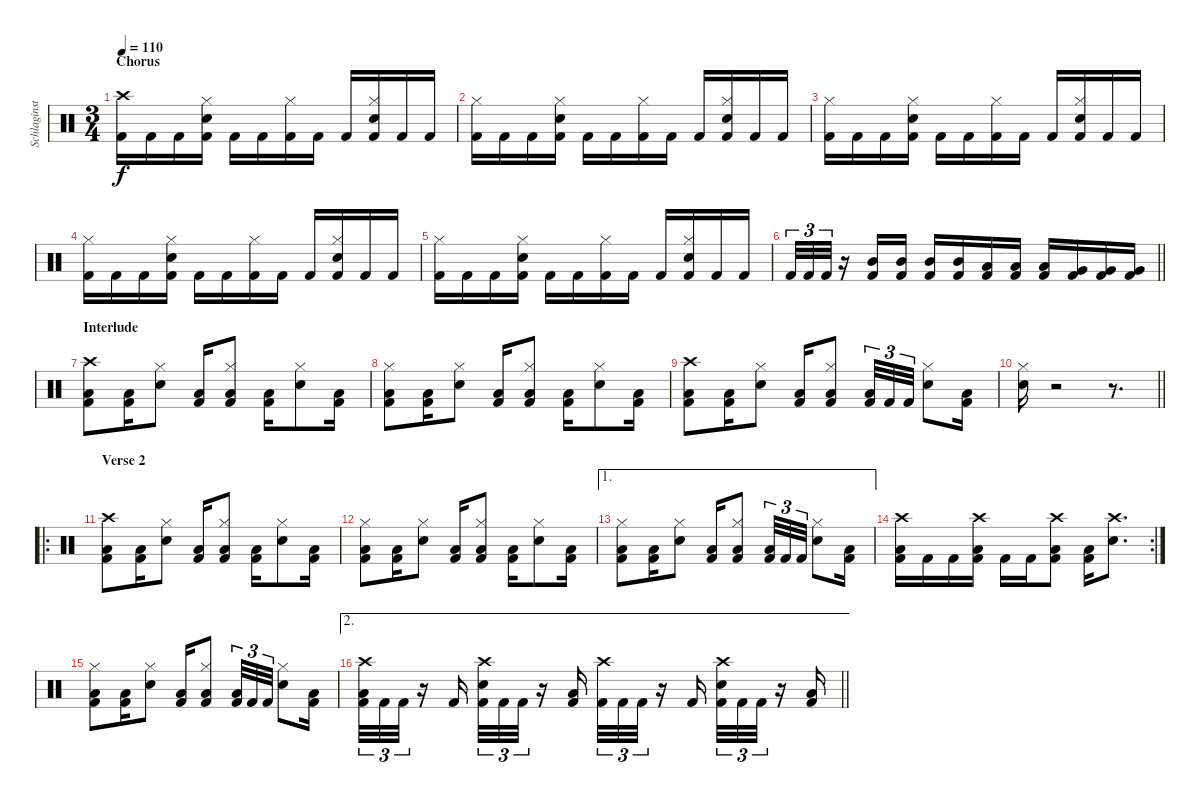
\track ("Schlaginstrumente - Auswahl" "Schlaginst") {instrument percussion}
\staff {score}
\articulation defaults
\ts (3 4)
\section ("" "Chorus")
\tempo 110
\clef neutral
\ks c
("Crash high (hit)" "Kick (hit) 2").16{dy f} "Kick (hit) 2".16 "Kick (hit) 2".16 ("Hi-Hat (closed)" "Snare (hit) 2" "Kick (hit) 2").16 "Kick (hit) 2".16 "Kick (hit) 2".16 ("Hi-Hat (closed)" "Kick (hit) 2").16 "Kick (hit) 2".16 "Kick (hit) 2".16 ("Hi-Hat (closed)" "Snare (hit) 2" "Kick (hit) 2").16 "Kick (hit) 2".16 "Kick (hit) 2".16 |
("Hi-Hat (closed)" "Kick (hit) 2").16 "Kick (hit) 2".16 "Kick (hit) 2".16 ("Hi-Hat (closed)" "Snare (hit) 2" "Kick (hit) 2").16 "Kick (hit) 2".16 "Kick (hit) 2".16 ("Hi-Hat (closed)" "Kick (hit) 2").16 "Kick (hit) 2".16 "Kick (hit) 2".16 ("Hi-Hat (closed)" "Snare (hit) 2" "Kick (hit) 2").16 "Kick (hit) 2".16 "Kick (hit) 2".16 |
("Hi-Hat (closed)" "Kick (hit) 2").16 "Kick (hit) 2".16 "Kick (hit) 2".16 ("Hi-Hat (closed)" "Snare (hit) 2" "Kick (hit) 2").16 "Kick (hit) 2".16 "Kick (hit) 2".16 ("Hi-Hat (closed)" "Kick (hit) 2").16 "Kick (hit) 2".16 "Kick (hit) 2".16 ("Hi-Hat (closed)" "Snare (hit) 2" "Kick (hit) 2").16 "Kick (hit) 2".16 "Kick (hit) 2".16 |
("Hi-Hat (closed)" "Kick (hit) 2").16 "Kick (hit) 2".16 "Kick (hit) 2".16 ("Hi-Hat (closed)" "Snare (hit) 2" "Kick (hit) 2").16 "Kick (hit) 2".16 "Kick (hit) 2".16 ("Hi-Hat (closed)" "Kick (hit) 2").16 "Kick (hit) 2".16 "Kick (hit) 2".16 ("Hi-Hat (closed)" "Snare (hit) 2" "Kick (hit) 2").16 "Kick (hit) 2".16 "Kick (hit) 2".16 |
("Hi-Hat (closed)" "Kick (hit) 2").16 "Kick (hit) 2".16 "Kick (hit) 2".16 ("Hi-Hat (closed)" "Snare (hit) 2" "Kick (hit) 2").16 "Kick (hit) 2".16 "Kick (hit) 2".16 ("Hi-Hat (closed)" "Kick (hit) 2").16 "Kick (hit) 2".16 "Kick (hit) 2".16 ("Hi-Hat (closed)" "Snare (hit) 2" "Kick (hit) 2").16 "Kick (hit) 2".16 "Kick (hit) 2".16 |
\barLineRight lightlight "Kick (hit) 2".32{tu (3 2)} "Kick (hit) 2".32{tu (3 2)} "Kick (hit) 2".32{tu (3 2)}
r.16 ("Mid Tom (hit)" "Kick (hit) 2").16 ("Mid Tom (hit)" "Kick (hit) 2").16 ("Mid Tom (hit)" "Kick (hit) 2").16 ("Mid Tom (hit)" "Kick (hit) 2").16 ("Low Tom (hit)" "Kick (hit) 2").16 ("Low Tom (hit)" "Kick (hit) 2").16 ("Low Tom (hit)" "Kick (hit) 2").16 ("Very Low Tom (hit)" "Kick (hit) 2").16 ("Very Low Tom (hit)" "Kick (hit) 2").16 ("Very Low Tom (hit)" "Kick (hit) 2").16 |
\section ("" "Interlude")
("Crash high (hit)" "Low Tom (hit)" "Kick (hit) 2").8 ("Low Tom (hit)" "Kick (hit) 2").16 ("Hi-Hat (closed)" "Snare (hit) 2").8 ("Low Tom (hit)" "Kick (hit) 2").16 ("Hi-Hat (closed)" "Low Tom (hit)" "Kick (hit) 2").8 ("Low Tom (hit)" "Kick (hit) 2").16 ("Hi-Hat (closed)" "Snare (hit) 2").8 ("Low Tom (hit)" "Kick (hit) 2").16 |
("Hi-Hat (closed)" "Low Tom (hit)" "Kick (hit) 2").8 ("Low Tom (hit)" "Kick (hit) 2").16 ("Hi-Hat (closed)" "Snare (hit) 2").8 ("Low Tom (hit)" "Kick (hit) 2").16 ("Hi-Hat (closed)" "Low Tom (hit)" "Kick (hit) 2").8 ("Low Tom (hit)" "Kick (hit) 2").16 ("Hi-Hat (closed)" "Snare (hit) 2").8 ("Low Tom (hit)" "Kick (hit) 2").16 |
("Crash high (hit)" "Low Tom (hit)" "Kick (hit) 2").8 ("Low Tom (hit)" "Kick (hit) 2").16 ("Hi-Hat (closed)" "Snare (hit) 2").8 ("Low Tom (hit)" "Kick (hit) 2").16 ("Hi-Hat (closed)" "Low Tom (hit)" "Kick (hit) 2").8 ("Low Tom (hit)" "Kick (hit) 2").32{tu (3 2)} "Kick (hit) 2".32{tu (3 2)} "Kick (hit) 2".32{tu (3 2)} ("Hi-Hat (closed)" "Snare (hit) 2").8 ("Low Tom (hit)" "Kick (hit) 2").16 |
\barLineRight lightlight
("Hi-Hat (closed)" "Snare (hit) 2").16 r.2 r.8{d} |
\ro
\section ("" "Verse 2")
("Crash high (hit)" "Low Tom (hit)" "Kick (hit) 2").8 ("Low Tom (hit)" "Kick (hit) 2").16 ("Hi-Hat (closed)" "Snare (hit) 2").8 ("Low Tom (hit)" "Kick (hit) 2").16 ("Hi-Hat (closed)" "Low Tom (hit)" "Kick (hit) 2").8 ("Low Tom (hit)" "Kick (hit) 2").16 ("Hi-Hat (closed)" "Snare (hit) 2").8 ("Low Tom (hit)" "Kick (hit) 2").16 |
("Hi-Hat (closed)" "Low Tom (hit)" "Kick (hit) 2").8 ("Low Tom (hit)" "Kick (hit) 2").16 ("Hi-Hat (closed)" "Snare (hit) 2").8 ("Low Tom (hit)" "Kick (hit) 2").16 ("Hi-Hat (closed)" "Low Tom (hit)" "Kick (hit) 2").8 ("Low Tom (hit)" "Kick (hit) 2").16 ("Hi-Hat (closed)" "Snare (hit) 2").8 ("Low Tom (hit)" "Kick (hit) 2").16 |
\ae 1
("Hi-Hat (closed)" "Low Tom (hit)" "Kick (hit) 2").8 ("Low Tom (hit)" "Kick (hit) 2").16 ("Hi-Hat (closed)" "Snare (hit) 2").8 ("Low Tom (hit)" "Kick (hit) 2").16 ("Hi-Hat (closed)" "Low Tom (hit)" "Kick (hit) 2").8 ("Low Tom (hit)" "Kick (hit) 2").32{tu (3 2)} "Kick (hit) 2".32{tu (3 2)} "Kick (hit) 2".32{tu (3 2)} ("Hi-Hat (closed)" "Snare (hit) 2").8 ("Low Tom (hit)" "Kick (hit) 2").16 |
\rc 2
("Crash high (hit)" "Low Tom (hit)" "Kick (hit) 2").16 "Kick (hit) 2".16 "Kick (hit) 2".16 ("Crash high (hit)" "Low Tom (hit)" "Kick (hit) 2").16 "Kick (hit) 2".16 "Kick (hit) 2".16 ("Crash high (hit)" "Low Tom (hit)" "Kick (hit) 2").8 ("Low Tom (hit)" "Kick (hit) 2").16 ("Crash high (hit)" "Snare (hit) 2").8{d} |
("Hi-Hat (closed)" "Low Tom (hit)" "Kick (hit) 2").8 ("Low Tom (hit)" "Kick (hit) 2").16 ("Hi-Hat (closed)" "Snare (hit) 2").8 ("Low Tom (hit)" "Kick (hit) 2").16 ("Hi-Hat (closed)" "Low Tom (hit)" "Kick (hit) 2").8 ("Low Tom (hit)" "Kick (hit) 2").32{tu (3 2)} "Kick (hit) 2".32{tu (3 2)} "Kick (hit) 2".32{tu (3 2)} ("Hi-Hat (closed)" "Snare (hit) 2").8 ("Low Tom (hit)" "Kick (hit) 2").16 |
\ae 2
\barLineRight lightlight
("Crash high (hit)" "Low Tom (hit)" "Kick (hit) 2").32{tu (3 2)} "Kick (hit) 2".32{tu (3 2)} "Kick (hit) 2".32{tu (3 2)} r.16 "Kick (hit) 2".16{beam splitsecondary} ("Crash high (hit)" "Snare (hit) 2" "Kick (hit) 2").32{tu (3 2)} "Kick (hit) 2".32{tu (3 2)} "Kick (hit) 2".32{tu (3 2)} r.16 ("Low Tom (hit)" "Kick (hit) 2").16{beam splitsecondary} ("Crash high (hit)" "Kick (hit) 2").32{tu (3 2)} "Kick (hit) 2".32{tu (3 2)} "Kick (hit) 2".32{tu (3 2)} r.16 "Kick (hit) 2".16{beam splitsecondary} ("Crash high (hit)" "Snare (hit) 2" "Kick (hit) 2").32{tu (3 2)} "Kick (hit) 2".32{tu (3 2)} "Kick (hit) 2".32{tu (3 2)} r.16 ("Low Tom (hit)" "Kick (hit) 2").16
